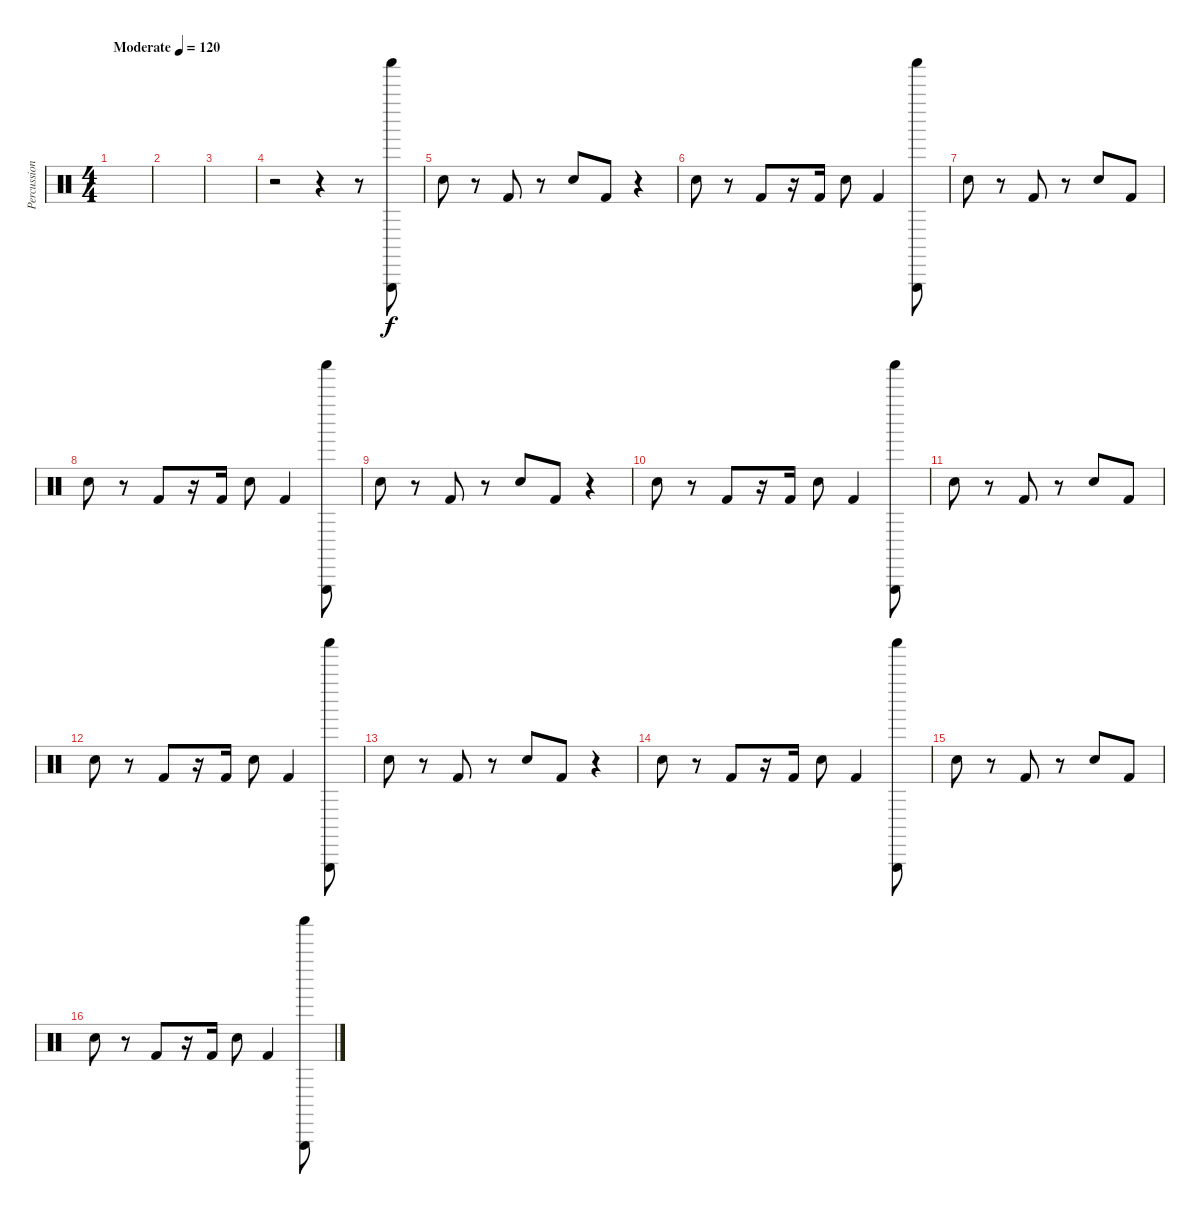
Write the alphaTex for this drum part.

\track ("Percussion" "Percussion") {instrument percussion}
\staff {score}
\articulation defaults
\ts (4 4)
\tempo (120 "Moderate")
\clef neutral
\ks c
|
|
|
r.2 r.4 r.8 ("Shaker (hit)" "Triangle (hit)").8 |
"Hand Clap (hit)".8 r.8 "Kick (hit) 2".8 r.8 "Hand Clap (hit)".8 "Kick (hit) 2".8 r.4 |
"Hand Clap (hit)".8 r.8 "Kick (hit) 2".8 r.16 "Kick (hit) 2".16 "Hand Clap (hit)".8 "Kick (hit) 2".4 ("Shaker (hit)" "Triangle (hit)").8 |
"Hand Clap (hit)".8 r.8 "Kick (hit) 2".8 r.8 "Hand Clap (hit)".8 "Kick (hit) 2".8 |
"Hand Clap (hit)".8 r.8 "Kick (hit) 2".8 r.16 "Kick (hit) 2".16 "Hand Clap (hit)".8 "Kick (hit) 2".4 ("Shaker (hit)" "Triangle (hit)").8 |
"Hand Clap (hit)".8 r.8 "Kick (hit) 2".8 r.8 "Hand Clap (hit)".8 "Kick (hit) 2".8 r.4 |
"Hand Clap (hit)".8 r.8 "Kick (hit) 2".8 r.16 "Kick (hit) 2".16 "Hand Clap (hit)".8 "Kick (hit) 2".4 ("Shaker (hit)" "Triangle (hit)").8 |
"Hand Clap (hit)".8 r.8 "Kick (hit) 2".8 r.8 "Hand Clap (hit)".8 "Kick (hit) 2".8 |
"Hand Clap (hit)".8 r.8 "Kick (hit) 2".8 r.16 "Kick (hit) 2".16 "Hand Clap (hit)".8 "Kick (hit) 2".4 ("Shaker (hit)" "Triangle (hit)").8 |
"Hand Clap (hit)".8 r.8 "Kick (hit) 2".8 r.8 "Hand Clap (hit)".8 "Kick (hit) 2".8 r.4 |
"Hand Clap (hit)".8 r.8 "Kick (hit) 2".8 r.16 "Kick (hit) 2".16 "Hand Clap (hit)".8 "Kick (hit) 2".4 ("Shaker (hit)" "Triangle (hit)").8 |
"Hand Clap (hit)".8 r.8 "Kick (hit) 2".8 r.8 "Hand Clap (hit)".8 "Kick (hit) 2".8 |
"Hand Clap (hit)".8 r.8 "Kick (hit) 2".8 r.16 "Kick (hit) 2".16 "Hand Clap (hit)".8 "Kick (hit) 2".4 ("Shaker (hit)" "Triangle (hit)").8
